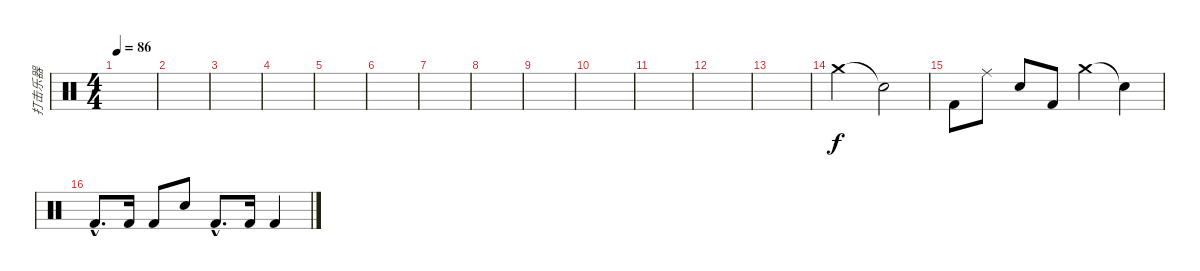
\track ("打击乐器" "打击乐器") {instrument percussion}
\staff {score}
\articulation defaults
\ts (4 4)
\tempo 86
\clef neutral
\ks c
|
|
|
|
|
|
|
|
|
|
|
|
|
"Crash medium (hit)".2 "Snare (hit)"{t}.2 |
"Kick (hit) 2".8 "Ride (middle)".8 "Snare (hit) 2".8 "Kick (hit) 2".8 "Crash medium (hit)".4 "Snare (hit)"{t}.4 |
"Kick (hit) 2"{hac}.8{d} "Kick (hit) 2".16 "Kick (hit) 2".8 "Snare (hit) 2".8 "Kick (hit) 2"{hac}.8{d} "Kick (hit) 2".16 "Kick (hit) 2".4
